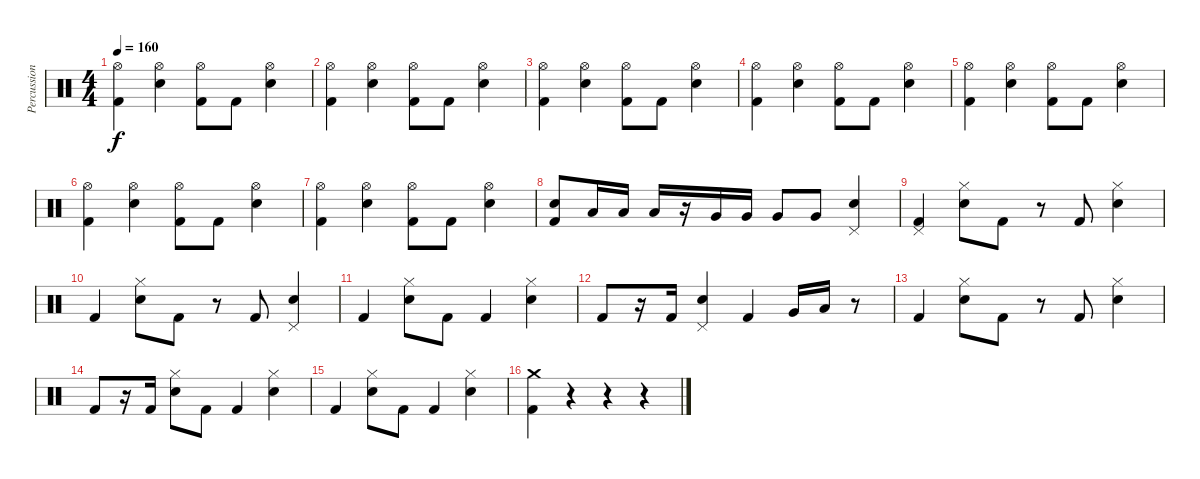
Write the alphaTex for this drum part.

\track ("Percussion" "Percussion") {instrument percussion}
\staff {score}
\articulation defaults
\ts (4 4)
\tempo 160
\clef neutral
\ks c
("Hi-Hat (open)" "Kick (hit) 2").4{dy f} ("Hi-Hat (open)" "Snare (hit) 2").4 ("Hi-Hat (open)" "Kick (hit) 2").8 "Kick (hit) 2".8 ("Hi-Hat (open)" "Snare (hit) 2").4 |
("Hi-Hat (open)" "Kick (hit) 2").4 ("Hi-Hat (open)" "Snare (hit) 2").4 ("Hi-Hat (open)" "Kick (hit) 2").8 "Kick (hit) 2".8 ("Hi-Hat (open)" "Snare (hit) 2").4 |
("Hi-Hat (open)" "Kick (hit) 2").4 ("Hi-Hat (open)" "Snare (hit) 2").4 ("Hi-Hat (open)" "Kick (hit) 2").8 "Kick (hit) 2".8 ("Hi-Hat (open)" "Snare (hit) 2").4 |
("Hi-Hat (open)" "Kick (hit) 2").4 ("Hi-Hat (open)" "Snare (hit) 2").4 ("Hi-Hat (open)" "Kick (hit) 2").8 "Kick (hit) 2".8 ("Hi-Hat (open)" "Snare (hit) 2").4 |
("Hi-Hat (open)" "Kick (hit) 2").4 ("Hi-Hat (open)" "Snare (hit) 2").4 ("Hi-Hat (open)" "Kick (hit) 2").8 "Kick (hit) 2".8 ("Hi-Hat (open)" "Snare (hit) 2").4 |
("Hi-Hat (open)" "Kick (hit) 2").4 ("Hi-Hat (open)" "Snare (hit) 2").4 ("Hi-Hat (open)" "Kick (hit) 2").8 "Kick (hit) 2".8 ("Hi-Hat (open)" "Snare (hit) 2").4 |
("Hi-Hat (open)" "Kick (hit) 2").4 ("Hi-Hat (open)" "Snare (hit) 2").4 ("Hi-Hat (open)" "Kick (hit) 2").8 "Kick (hit) 2".8 ("Hi-Hat (open)" "Snare (hit) 2").4 |
("Kick (hit) 2" "Snare (hit) 2").8 "Low Tom (hit)".16 "Low Tom (hit)".16 "Low Tom (hit)".16 r.16 "Very Low Tom (hit)".16 "Very Low Tom (hit)".16 "Very Low Tom (hit)".8 "Very Low Tom (hit)".8 ("Pedal Hi-Hat (hit)" "Snare (hit) 2").4 |
("Pedal Hi-Hat (hit)" "Kick (hit) 2").4 ("Hi-Hat (closed)" "Snare (hit) 2").8 "Kick (hit) 2".8 r.8 "Kick (hit) 2".8 ("Hi-Hat (closed)" "Snare (hit) 2").4 |
"Kick (hit) 2".4 ("Hi-Hat (closed)" "Snare (hit) 2").8 "Kick (hit) 2".8 r.8 "Kick (hit) 2".8 ("Pedal Hi-Hat (hit)" "Snare (hit) 2").4 |
"Kick (hit) 2".4 ("Hi-Hat (closed)" "Snare (hit) 2").8 "Kick (hit) 2".8 "Kick (hit) 2".4 ("Hi-Hat (closed)" "Snare (hit) 2").4 |
"Kick (hit) 2".8 r.16 "Kick (hit) 2".16 ("Pedal Hi-Hat (hit)" "Snare (hit) 2").4 "Kick (hit) 2".4 "Very Low Tom (hit)".16 "Low Floor Tom (hit)".16 r.8 |
"Kick (hit) 2".4 ("Hi-Hat (closed)" "Snare (hit) 2").8 "Kick (hit) 2".8 r.8 "Kick (hit) 2".8 ("Hi-Hat (closed)" "Snare (hit) 2").4 |
"Kick (hit) 2".8 r.16 "Kick (hit) 2".16 ("Hi-Hat (closed)" "Snare (hit) 2").8 "Kick (hit) 2".8 "Kick (hit) 2".4 ("Hi-Hat (closed)" "Snare (hit) 2").4 |
"Kick (hit) 2".4 ("Hi-Hat (closed)" "Snare (hit) 2").8 "Kick (hit) 2".8 "Kick (hit) 2".4 ("Hi-Hat (closed)" "Snare (hit) 2").4 |
("Kick (hit) 2" "Crash medium (hit)").4 r.4 r.4 r.4
